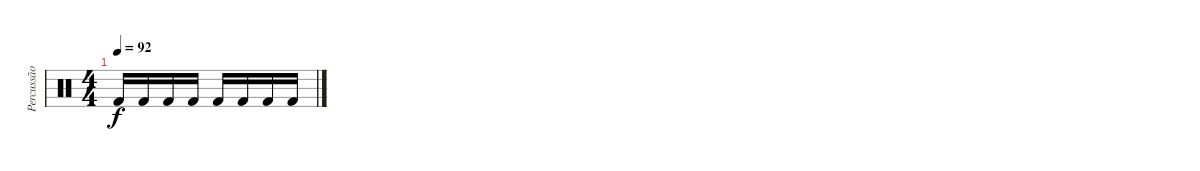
\track ("Percussão" "Percussão") {instrument percussion}
\staff {score}
\articulation defaults
\ts (4 4)
\tempo 92
\clef neutral
\ks c "Kick (hit) 2".16{dy f} "Kick (hit) 2".16 "Kick (hit) 2".16 "Kick (hit) 2".16 "Kick (hit) 2".16 "Kick (hit) 2".16 "Kick (hit) 2".16 "Kick (hit) 2".16
